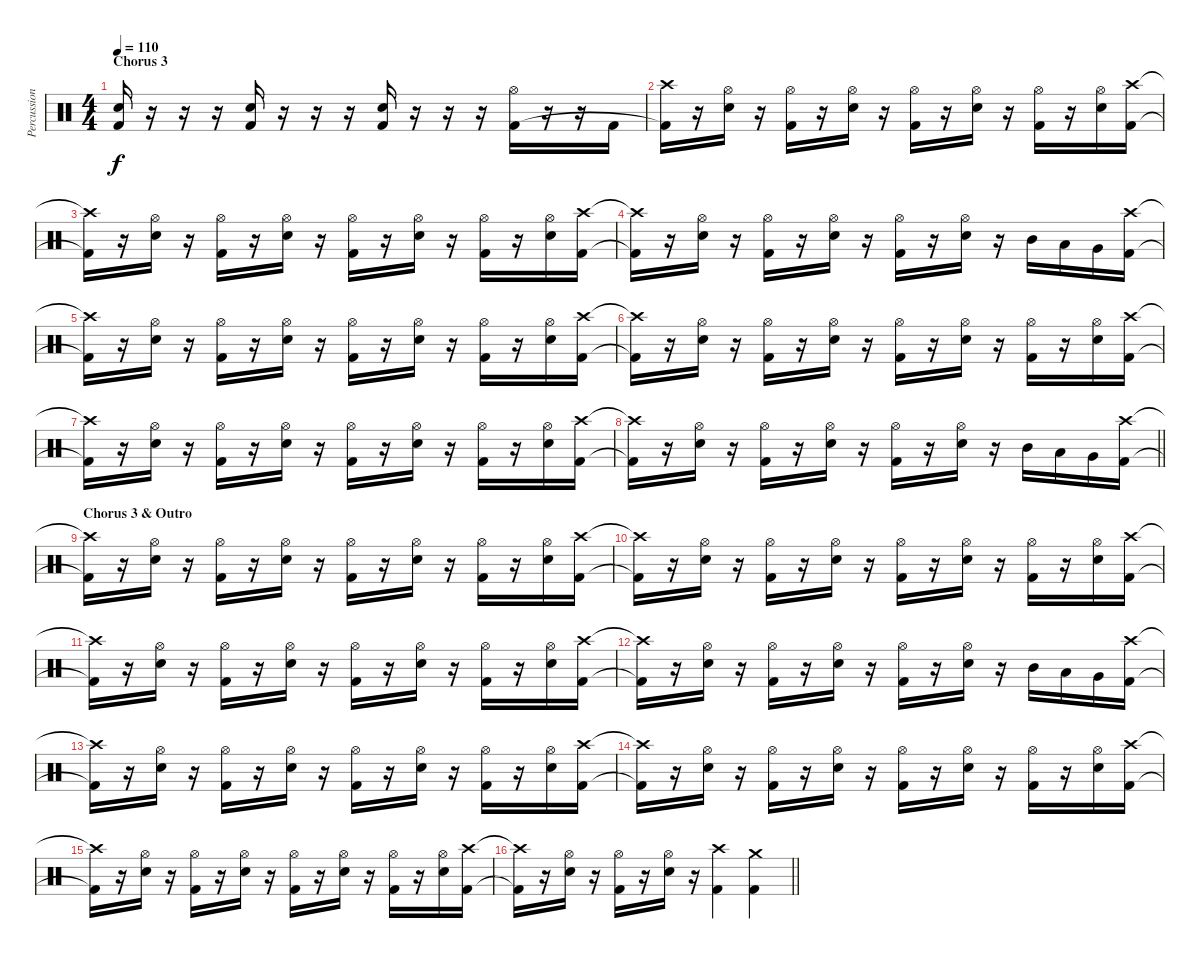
\track ("Percussion" "Percussion") {instrument percussion}
\staff {score}
\articulation defaults
\ts (4 4)
\section ("" "Chorus 3")
\tempo 110
\clef neutral
\ks c
("Snare (hit) 2" "Kick (hit) 2").16{dy f} r.16 r.16 r.16 ("Snare (hit) 2" "Kick (hit) 2").16 r.16 r.16 r.16 ("Snare (hit) 2" "Kick (hit) 2").16 r.16 r.16 r.16 ("Hi-Hat (open)" "Kick (hit) 2").16 r.16 r.16 "Kick (hit) 2".16 |
("Crash high (hit)" "Kick (hit) 2"{t}).16 r.16 ("Hi-Hat (open)" "Snare (hit) 2").16 r.16 ("Hi-Hat (open)" "Kick (hit) 2").16 r.16 ("Hi-Hat (open)" "Snare (hit) 2").16 r.16 ("Hi-Hat (open)" "Kick (hit) 2").16 r.16 ("Hi-Hat (open)" "Snare (hit) 2").16 r.16 ("Hi-Hat (open)" "Kick (hit) 2").16 r.16 ("Hi-Hat (open)" "Snare (hit) 2").16 ("Crash high (hit)" "Kick (hit) 2").16 |
("Crash high (hit)"{t} "Kick (hit) 2"{t}).16 r.16 ("Hi-Hat (open)" "Snare (hit) 2").16 r.16 ("Hi-Hat (open)" "Kick (hit) 2").16 r.16 ("Hi-Hat (open)" "Snare (hit) 2").16 r.16 ("Hi-Hat (open)" "Kick (hit) 2").16 r.16 ("Hi-Hat (open)" "Snare (hit) 2").16 r.16 ("Hi-Hat (open)" "Kick (hit) 2").16 r.16 ("Hi-Hat (open)" "Snare (hit) 2").16 ("Crash high (hit)" "Kick (hit) 2").16 |
("Crash high (hit)"{t} "Kick (hit) 2"{t}).16 r.16 ("Hi-Hat (open)" "Snare (hit) 2").16 r.16 ("Hi-Hat (open)" "Kick (hit) 2").16 r.16 ("Hi-Hat (open)" "Snare (hit) 2").16 r.16 ("Hi-Hat (open)" "Kick (hit) 2").16 r.16 ("Hi-Hat (open)" "Snare (hit) 2").16 r.16 "Mid Tom (hit)".16 "Low Tom (hit)".16 "Very Low Tom (hit)".16 ("Crash high (hit)" "Kick (hit) 2").16 |
("Crash high (hit)"{t} "Kick (hit) 2"{t}).16 r.16 ("Hi-Hat (open)" "Snare (hit) 2").16 r.16 ("Hi-Hat (open)" "Kick (hit) 2").16 r.16 ("Hi-Hat (open)" "Snare (hit) 2").16 r.16 ("Hi-Hat (open)" "Kick (hit) 2").16 r.16 ("Hi-Hat (open)" "Snare (hit) 2").16 r.16 ("Hi-Hat (open)" "Kick (hit) 2").16 r.16 ("Hi-Hat (open)" "Snare (hit) 2").16 ("Crash high (hit)" "Kick (hit) 2").16 |
("Crash high (hit)"{t} "Kick (hit) 2"{t}).16 r.16 ("Hi-Hat (open)" "Snare (hit) 2").16 r.16 ("Hi-Hat (open)" "Kick (hit) 2").16 r.16 ("Hi-Hat (open)" "Snare (hit) 2").16 r.16 ("Hi-Hat (open)" "Kick (hit) 2").16 r.16 ("Hi-Hat (open)" "Snare (hit) 2").16 r.16 ("Hi-Hat (open)" "Kick (hit) 2").16 r.16 ("Hi-Hat (open)" "Snare (hit) 2").16 ("Crash high (hit)" "Kick (hit) 2").16 |
("Crash high (hit)"{t} "Kick (hit) 2"{t}).16 r.16 ("Hi-Hat (open)" "Snare (hit) 2").16 r.16 ("Hi-Hat (open)" "Kick (hit) 2").16 r.16 ("Hi-Hat (open)" "Snare (hit) 2").16 r.16 ("Hi-Hat (open)" "Kick (hit) 2").16 r.16 ("Hi-Hat (open)" "Snare (hit) 2").16 r.16 ("Hi-Hat (open)" "Kick (hit) 2").16 r.16 ("Hi-Hat (open)" "Snare (hit) 2").16 ("Crash high (hit)" "Kick (hit) 2").16 |
\barLineRight lightlight
("Crash high (hit)"{t} "Kick (hit) 2"{t}).16 r.16 ("Hi-Hat (open)" "Snare (hit) 2").16 r.16 ("Hi-Hat (open)" "Kick (hit) 2").16 r.16 ("Hi-Hat (open)" "Snare (hit) 2").16 r.16 ("Hi-Hat (open)" "Kick (hit) 2").16 r.16 ("Hi-Hat (open)" "Snare (hit) 2").16 r.16 "Mid Tom (hit)".16 "Low Tom (hit)".16 "Very Low Tom (hit)".16 ("Crash high (hit)" "Kick (hit) 2").16 |
\section ("" "Chorus 3 & Outro")
("Crash high (hit)"{t} "Kick (hit) 2"{t}).16 r.16 ("Hi-Hat (open)" "Snare (hit) 2").16 r.16 ("Hi-Hat (open)" "Kick (hit) 2").16 r.16 ("Hi-Hat (open)" "Snare (hit) 2").16 r.16 ("Hi-Hat (open)" "Kick (hit) 2").16 r.16 ("Hi-Hat (open)" "Snare (hit) 2").16 r.16 ("Hi-Hat (open)" "Kick (hit) 2").16 r.16 ("Hi-Hat (open)" "Snare (hit) 2").16 ("Crash high (hit)" "Kick (hit) 2").16 |
("Crash high (hit)"{t} "Kick (hit) 2"{t}).16 r.16 ("Hi-Hat (open)" "Snare (hit) 2").16 r.16 ("Hi-Hat (open)" "Kick (hit) 2").16 r.16 ("Hi-Hat (open)" "Snare (hit) 2").16 r.16 ("Hi-Hat (open)" "Kick (hit) 2").16 r.16 ("Hi-Hat (open)" "Snare (hit) 2").16 r.16 ("Hi-Hat (open)" "Kick (hit) 2").16 r.16 ("Hi-Hat (open)" "Snare (hit) 2").16 ("Crash high (hit)" "Kick (hit) 2").16 |
("Crash high (hit)"{t} "Kick (hit) 2"{t}).16 r.16 ("Hi-Hat (open)" "Snare (hit) 2").16 r.16 ("Hi-Hat (open)" "Kick (hit) 2").16 r.16 ("Hi-Hat (open)" "Snare (hit) 2").16 r.16 ("Hi-Hat (open)" "Kick (hit) 2").16 r.16 ("Hi-Hat (open)" "Snare (hit) 2").16 r.16 ("Hi-Hat (open)" "Kick (hit) 2").16 r.16 ("Hi-Hat (open)" "Snare (hit) 2").16 ("Crash high (hit)" "Kick (hit) 2").16 |
("Crash high (hit)"{t} "Kick (hit) 2"{t}).16 r.16 ("Hi-Hat (open)" "Snare (hit) 2").16 r.16 ("Hi-Hat (open)" "Kick (hit) 2").16 r.16 ("Hi-Hat (open)" "Snare (hit) 2").16 r.16 ("Hi-Hat (open)" "Kick (hit) 2").16 r.16 ("Hi-Hat (open)" "Snare (hit) 2").16 r.16 "Mid Tom (hit)".16 "Low Tom (hit)".16 "Very Low Tom (hit)".16 ("Crash high (hit)" "Kick (hit) 2").16 |
("Crash high (hit)"{t} "Kick (hit) 2"{t}).16 r.16 ("Hi-Hat (open)" "Snare (hit) 2").16 r.16 ("Hi-Hat (open)" "Kick (hit) 2").16 r.16 ("Hi-Hat (open)" "Snare (hit) 2").16 r.16 ("Hi-Hat (open)" "Kick (hit) 2").16 r.16 ("Hi-Hat (open)" "Snare (hit) 2").16 r.16 ("Hi-Hat (open)" "Kick (hit) 2").16 r.16 ("Hi-Hat (open)" "Snare (hit) 2").16 ("Crash high (hit)" "Kick (hit) 2").16 |
("Crash high (hit)"{t} "Kick (hit) 2"{t}).16 r.16 ("Hi-Hat (open)" "Snare (hit) 2").16 r.16 ("Hi-Hat (open)" "Kick (hit) 2").16 r.16 ("Hi-Hat (open)" "Snare (hit) 2").16 r.16 ("Hi-Hat (open)" "Kick (hit) 2").16 r.16 ("Hi-Hat (open)" "Snare (hit) 2").16 r.16 ("Hi-Hat (open)" "Kick (hit) 2").16 r.16 ("Hi-Hat (open)" "Snare (hit) 2").16 ("Crash high (hit)" "Kick (hit) 2").16 |
("Crash high (hit)"{t} "Kick (hit) 2"{t}).16 r.16 ("Hi-Hat (open)" "Snare (hit) 2").16 r.16 ("Hi-Hat (open)" "Kick (hit) 2").16 r.16 ("Hi-Hat (open)" "Snare (hit) 2").16 r.16 ("Hi-Hat (open)" "Kick (hit) 2").16 r.16 ("Hi-Hat (open)" "Snare (hit) 2").16 r.16 ("Hi-Hat (open)" "Kick (hit) 2").16 r.16 ("Hi-Hat (open)" "Snare (hit) 2").16 ("Crash high (hit)" "Kick (hit) 2").16 |
\barLineRight lightlight
("Crash high (hit)"{t} "Kick (hit) 2"{t}).16 r.16 ("Hi-Hat (open)" "Snare (hit) 2").16 r.16 ("Hi-Hat (open)" "Kick (hit) 2").16 r.16 ("Hi-Hat (open)" "Snare (hit) 2").16 r.16 ("Crash high (hit)" "Kick (hit) 2").4 ("Crash medium (hit)" "Kick (hit) 2").4
